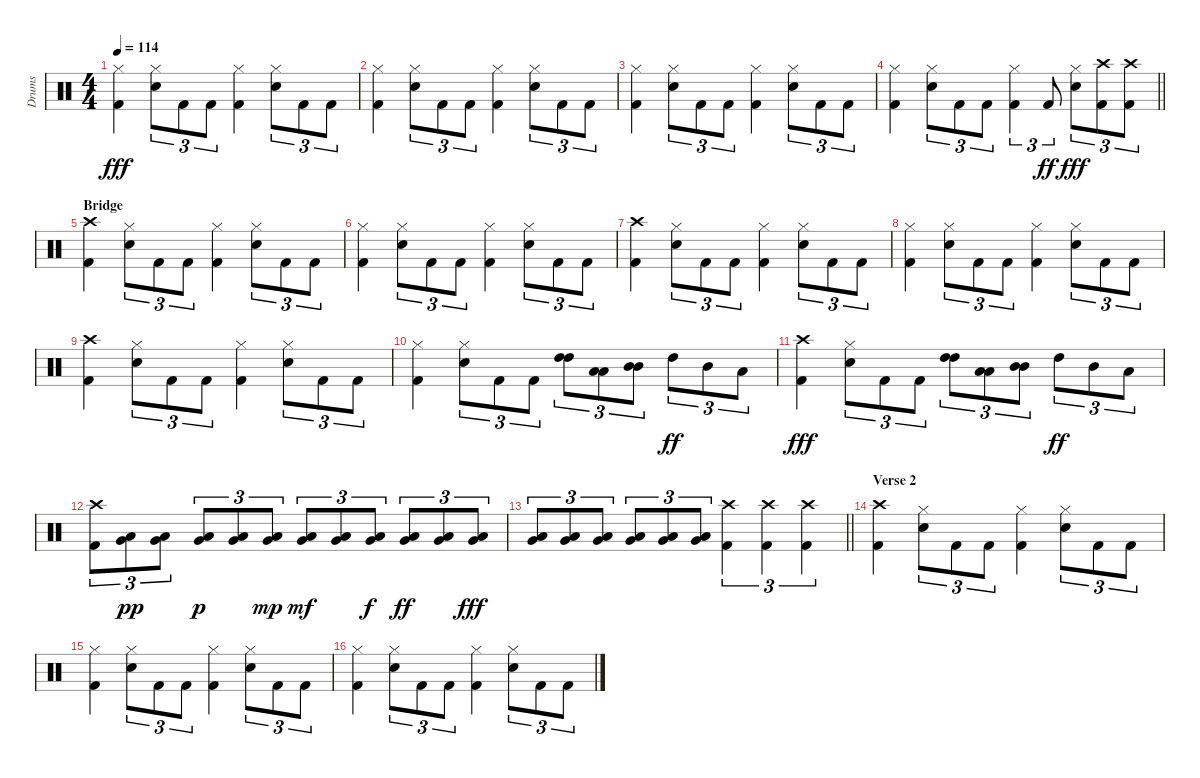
\track ("Drums" "Drums") {instrument percussion}
\staff {score}
\articulation defaults
\ts (4 4)
\tempo 114
\clef neutral
\ks c
("Hi-Hat (closed)" "Kick (hit) 2").4{dy fff} ("Hi-Hat (closed)" "Snare (hit) 2").8{tu (3 2)} "Kick (hit) 2".8{tu (3 2)} "Kick (hit) 2".8{tu (3 2)} ("Hi-Hat (closed)" "Kick (hit) 2").4 ("Hi-Hat (closed)" "Snare (hit) 2").8{tu (3 2)} "Kick (hit) 2".8{tu (3 2)} "Kick (hit) 2".8{tu (3 2)} |
("Hi-Hat (closed)" "Kick (hit) 2").4 ("Hi-Hat (closed)" "Snare (hit) 2").8{tu (3 2)} "Kick (hit) 2".8{tu (3 2)} "Kick (hit) 2".8{tu (3 2)} ("Hi-Hat (closed)" "Kick (hit) 2").4 ("Hi-Hat (closed)" "Snare (hit) 2").8{tu (3 2)} "Kick (hit) 2".8{tu (3 2)} "Kick (hit) 2".8{tu (3 2)} |
("Hi-Hat (closed)" "Kick (hit) 2").4 ("Hi-Hat (closed)" "Snare (hit) 2").8{tu (3 2)} "Kick (hit) 2".8{tu (3 2)} "Kick (hit) 2".8{tu (3 2)} ("Hi-Hat (closed)" "Kick (hit) 2").4 ("Hi-Hat (closed)" "Snare (hit) 2").8{tu (3 2)} "Kick (hit) 2".8{tu (3 2)} "Kick (hit) 2".8{tu (3 2)} |
\barLineRight lightlight
("Hi-Hat (closed)" "Kick (hit) 2").4 ("Hi-Hat (closed)" "Snare (hit) 2").8{tu (3 2)} "Kick (hit) 2".8{tu (3 2)} "Kick (hit) 2".8{tu (3 2)} ("Hi-Hat (closed)" "Kick (hit) 2").4{tu (3 2)} "Kick (hit) 2".8{tu (3 2) dy ff} ("Hi-Hat (closed)" "Snare (hit) 2").8{tu (3 2) dy fff} ("Crash high (hit)" "Kick (hit) 2").8{tu (3 2)} ("Crash high (hit)" "Kick (hit) 2").8{tu (3 2)} |
\section ("" "Bridge")
("Crash high (hit)" "Kick (hit) 2").4 ("Hi-Hat (closed)" "Snare (hit) 2").8{tu (3 2)} "Kick (hit) 2".8{tu (3 2)} "Kick (hit) 2".8{tu (3 2)} ("Hi-Hat (closed)" "Kick (hit) 2").4 ("Hi-Hat (closed)" "Snare (hit) 2").8{tu (3 2)} "Kick (hit) 2".8{tu (3 2)} "Kick (hit) 2".8{tu (3 2)} |
("Hi-Hat (closed)" "Kick (hit) 2").4 ("Hi-Hat (closed)" "Snare (hit) 2").8{tu (3 2)} "Kick (hit) 2".8{tu (3 2)} "Kick (hit) 2".8{tu (3 2)} ("Hi-Hat (closed)" "Kick (hit) 2").4 ("Hi-Hat (closed)" "Snare (hit) 2").8{tu (3 2)} "Kick (hit) 2".8{tu (3 2)} "Kick (hit) 2".8{tu (3 2)} |
("Crash high (hit)" "Kick (hit) 2").4 ("Hi-Hat (closed)" "Snare (hit) 2").8{tu (3 2)} "Kick (hit) 2".8{tu (3 2)} "Kick (hit) 2".8{tu (3 2)} ("Hi-Hat (closed)" "Kick (hit) 2").4 ("Hi-Hat (closed)" "Snare (hit) 2").8{tu (3 2)} "Kick (hit) 2".8{tu (3 2)} "Kick (hit) 2".8{tu (3 2)} |
("Hi-Hat (closed)" "Kick (hit) 2").4 ("Hi-Hat (closed)" "Snare (hit) 2").8{tu (3 2)} "Kick (hit) 2".8{tu (3 2)} "Kick (hit) 2".8{tu (3 2)} ("Hi-Hat (closed)" "Kick (hit) 2").4 ("Hi-Hat (closed)" "Snare (hit) 2").8{tu (3 2)} "Kick (hit) 2".8{tu (3 2)} "Kick (hit) 2".8{tu (3 2)} |
("Crash high (hit)" "Kick (hit) 2").4 ("Hi-Hat (closed)" "Snare (hit) 2").8{tu (3 2)} "Kick (hit) 2".8{tu (3 2)} "Kick (hit) 2".8{tu (3 2)} ("Hi-Hat (closed)" "Kick (hit) 2").4 ("Hi-Hat (closed)" "Snare (hit) 2").8{tu (3 2)} "Kick (hit) 2".8{tu (3 2)} "Kick (hit) 2".8{tu (3 2)} |
("Hi-Hat (closed)" "Kick (hit) 2").4 ("Hi-Hat (closed)" "Snare (hit) 2").8{tu (3 2)} "Kick (hit) 2".8{tu (3 2)} "Kick (hit) 2".8{tu (3 2)} ("High Tom (hit)" "High Tom (hit)").8{tu (3 2)} ("Low Tom (hit)" "Low Tom (hit)").8{tu (3 2)} ("Mid Tom (hit)" "Mid Tom (hit)").8{tu (3 2)} "High Tom (hit)".8{tu (3 2) dy ff} "Mid Tom (hit)".8{tu (3 2)} "Low Tom (hit)".8{tu (3 2)} |
("Crash high (hit)" "Kick (hit) 2").4{dy fff} ("Hi-Hat (closed)" "Snare (hit) 2").8{tu (3 2)} "Kick (hit) 2".8{tu (3 2)} "Kick (hit) 2".8{tu (3 2)} ("High Tom (hit)" "High Tom (hit)").8{tu (3 2)} ("Low Tom (hit)" "Low Tom (hit)").8{tu (3 2)} ("Mid Tom (hit)" "Mid Tom (hit)").8{tu (3 2)} "High Tom (hit)".8{tu (3 2) dy ff} "Mid Tom (hit)".8{tu (3 2)} "Low Tom (hit)".8{tu (3 2)} |
("Crash high (hit)" "Kick (hit) 2").8{tu (3 2)} ("Very Low Tom (hit)" "Low Floor Tom (hit)").8{tu (3 2) dy pp} ("Very Low Tom (hit)" "Low Floor Tom (hit)").8{tu (3 2)} ("Very Low Tom (hit)" "Low Floor Tom (hit)").8{tu (3 2) dy p} ("Very Low Tom (hit)" "Low Floor Tom (hit)").8{tu (3 2)} ("Very Low Tom (hit)" "Low Floor Tom (hit)").8{tu (3 2) dy mp} ("Very Low Tom (hit)" "Low Floor Tom (hit)").8{tu (3 2) dy mf} ("Very Low Tom (hit)" "Low Floor Tom (hit)").8{tu (3 2)} ("Very Low Tom (hit)" "Low Floor Tom (hit)").8{tu (3 2) dy f} ("Very Low Tom (hit)" "Low Floor Tom (hit)").8{tu (3 2) dy ff} ("Very Low Tom (hit)" "Low Floor Tom (hit)").8{tu (3 2)} ("Very Low Tom (hit)" "Low Floor Tom (hit)").8{tu (3 2) dy fff} |
\barLineRight lightlight
("Very Low Tom (hit)" "Low Floor Tom (hit)").8{tu (3 2)} ("Very Low Tom (hit)" "Low Floor Tom (hit)").8{tu (3 2)} ("Very Low Tom (hit)" "Low Floor Tom (hit)").8{tu (3 2)} ("Very Low Tom (hit)" "Low Floor Tom (hit)").8{tu (3 2)} ("Very Low Tom (hit)" "Low Floor Tom (hit)").8{tu (3 2)} ("Very Low Tom (hit)" "Low Floor Tom (hit)").8{tu (3 2)} ("Crash high (hit)" "Kick (hit) 2").4{tu (3 2)} ("Crash high (hit)" "Kick (hit) 2").4{tu (3 2)} ("Crash high (hit)" "Kick (hit) 2").4{tu (3 2)} |
\section ("" "Verse 2")
("Crash high (hit)" "Kick (hit) 2").4 ("Hi-Hat (closed)" "Snare (hit) 2").8{tu (3 2)} "Kick (hit) 2".8{tu (3 2)} "Kick (hit) 2".8{tu (3 2)} ("Hi-Hat (closed)" "Kick (hit) 2").4 ("Hi-Hat (closed)" "Snare (hit) 2").8{tu (3 2)} "Kick (hit) 2".8{tu (3 2)} "Kick (hit) 2".8{tu (3 2)} |
("Hi-Hat (closed)" "Kick (hit) 2").4 ("Hi-Hat (closed)" "Snare (hit) 2").8{tu (3 2)} "Kick (hit) 2".8{tu (3 2)} "Kick (hit) 2".8{tu (3 2)} ("Hi-Hat (closed)" "Kick (hit) 2").4 ("Hi-Hat (closed)" "Snare (hit) 2").8{tu (3 2)} "Kick (hit) 2".8{tu (3 2)} "Kick (hit) 2".8{tu (3 2)} |
("Hi-Hat (closed)" "Kick (hit) 2").4 ("Hi-Hat (closed)" "Snare (hit) 2").8{tu (3 2)} "Kick (hit) 2".8{tu (3 2)} "Kick (hit) 2".8{tu (3 2)} ("Hi-Hat (closed)" "Kick (hit) 2").4 ("Hi-Hat (closed)" "Snare (hit) 2").8{tu (3 2)} "Kick (hit) 2".8{tu (3 2)} "Kick (hit) 2".8{tu (3 2)}
